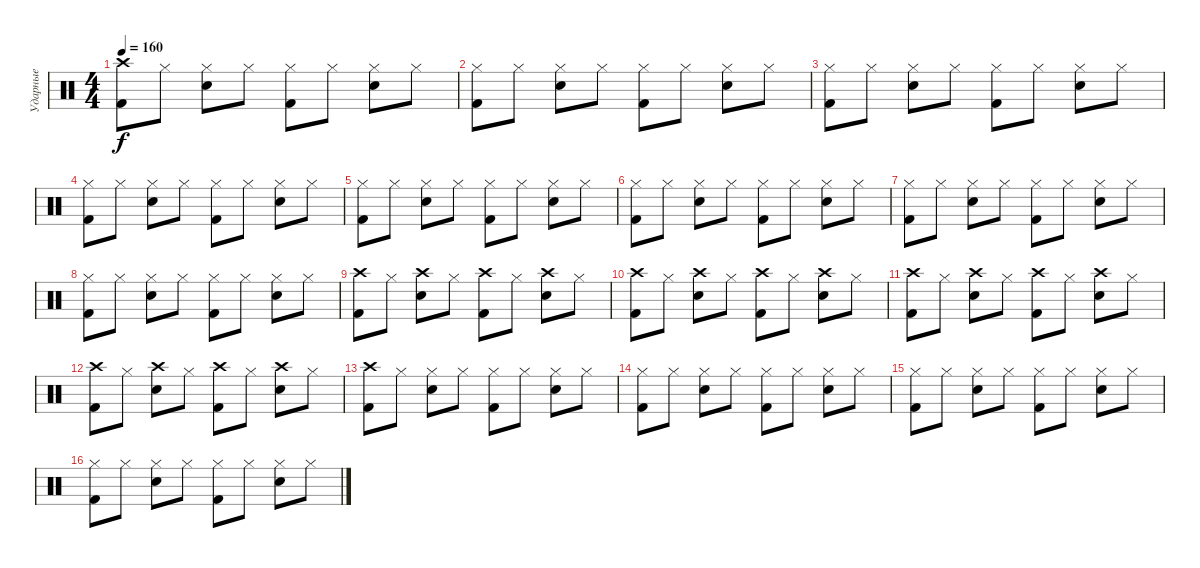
\track ("Ударные" "Ударные") {instrument percussion}
\staff {score}
\articulation defaults
\ts (4 4)
\tempo 160
\clef neutral
\ks c
("Crash high (hit)" "Kick (hit) 2").8{dy f} "Hi-Hat (closed)".8 ("Hi-Hat (closed)" "Snare (hit) 2").8 "Hi-Hat (closed)".8 ("Hi-Hat (closed)" "Kick (hit) 2").8 "Hi-Hat (closed)".8 ("Hi-Hat (closed)" "Snare (hit) 2").8 "Hi-Hat (closed)".8 |
("Hi-Hat (closed)" "Kick (hit) 2").8 "Hi-Hat (closed)".8 ("Hi-Hat (closed)" "Snare (hit) 2").8 "Hi-Hat (closed)".8 ("Hi-Hat (closed)" "Kick (hit) 2").8 "Hi-Hat (closed)".8 ("Hi-Hat (closed)" "Snare (hit) 2").8 "Hi-Hat (closed)".8 |
("Hi-Hat (closed)" "Kick (hit) 2").8 "Hi-Hat (closed)".8 ("Hi-Hat (closed)" "Snare (hit) 2").8 "Hi-Hat (closed)".8 ("Hi-Hat (closed)" "Kick (hit) 2").8 "Hi-Hat (closed)".8 ("Hi-Hat (closed)" "Snare (hit) 2").8 "Hi-Hat (closed)".8 |
("Hi-Hat (closed)" "Kick (hit) 2").8 "Hi-Hat (closed)".8 ("Hi-Hat (closed)" "Snare (hit) 2").8 "Hi-Hat (closed)".8 ("Hi-Hat (closed)" "Kick (hit) 2").8 "Hi-Hat (closed)".8 ("Hi-Hat (closed)" "Snare (hit) 2").8 "Hi-Hat (closed)".8 |
("Hi-Hat (closed)" "Kick (hit) 2").8 "Hi-Hat (closed)".8 ("Hi-Hat (closed)" "Snare (hit) 2").8 "Hi-Hat (closed)".8 ("Hi-Hat (closed)" "Kick (hit) 2").8 "Hi-Hat (closed)".8 ("Hi-Hat (closed)" "Snare (hit) 2").8 "Hi-Hat (closed)".8 |
("Hi-Hat (closed)" "Kick (hit) 2").8 "Hi-Hat (closed)".8 ("Hi-Hat (closed)" "Snare (hit) 2").8 "Hi-Hat (closed)".8 ("Hi-Hat (closed)" "Kick (hit) 2").8 "Hi-Hat (closed)".8 ("Hi-Hat (closed)" "Snare (hit) 2").8 "Hi-Hat (closed)".8 |
("Hi-Hat (closed)" "Kick (hit) 2").8 "Hi-Hat (closed)".8 ("Hi-Hat (closed)" "Snare (hit) 2").8 "Hi-Hat (closed)".8 ("Hi-Hat (closed)" "Kick (hit) 2").8 "Hi-Hat (closed)".8 ("Hi-Hat (closed)" "Snare (hit) 2").8 "Hi-Hat (closed)".8 |
("Hi-Hat (closed)" "Kick (hit) 2").8 "Hi-Hat (closed)".8 ("Hi-Hat (closed)" "Snare (hit) 2").8 "Hi-Hat (closed)".8 ("Hi-Hat (closed)" "Kick (hit) 2").8 "Hi-Hat (closed)".8 ("Hi-Hat (closed)" "Snare (hit) 2").8 "Hi-Hat (closed)".8 |
("Crash high (hit)" "Kick (hit) 2").8 "Hi-Hat (closed)".8 ("Crash high (hit)" "Snare (hit) 2").8 "Hi-Hat (closed)".8 ("Crash high (hit)" "Kick (hit) 2").8 "Hi-Hat (closed)".8 ("Crash high (hit)" "Snare (hit) 2").8 "Hi-Hat (closed)".8 |
("Crash high (hit)" "Kick (hit) 2").8 "Hi-Hat (closed)".8 ("Crash high (hit)" "Snare (hit) 2").8 "Hi-Hat (closed)".8 ("Crash high (hit)" "Kick (hit) 2").8 "Hi-Hat (closed)".8 ("Crash high (hit)" "Snare (hit) 2").8 "Hi-Hat (closed)".8 |
("Crash high (hit)" "Kick (hit) 2").8 "Hi-Hat (closed)".8 ("Crash high (hit)" "Snare (hit) 2").8 "Hi-Hat (closed)".8 ("Crash high (hit)" "Kick (hit) 2").8 "Hi-Hat (closed)".8 ("Crash high (hit)" "Snare (hit) 2").8 "Hi-Hat (closed)".8 |
("Crash high (hit)" "Kick (hit) 2").8 "Hi-Hat (closed)".8 ("Crash high (hit)" "Snare (hit) 2").8 "Hi-Hat (closed)".8 ("Crash high (hit)" "Kick (hit) 2").8 "Hi-Hat (closed)".8 ("Crash high (hit)" "Snare (hit) 2").8 "Hi-Hat (closed)".8 |
("Crash high (hit)" "Kick (hit) 2").8 "Hi-Hat (closed)".8 ("Hi-Hat (closed)" "Snare (hit) 2").8 "Hi-Hat (closed)".8 ("Hi-Hat (closed)" "Kick (hit) 2").8 "Hi-Hat (closed)".8 ("Hi-Hat (closed)" "Snare (hit) 2").8 "Hi-Hat (closed)".8 |
("Hi-Hat (closed)" "Kick (hit) 2").8 "Hi-Hat (closed)".8 ("Hi-Hat (closed)" "Snare (hit) 2").8 "Hi-Hat (closed)".8 ("Hi-Hat (closed)" "Kick (hit) 2").8 "Hi-Hat (closed)".8 ("Hi-Hat (closed)" "Snare (hit) 2").8 "Hi-Hat (closed)".8 |
("Hi-Hat (closed)" "Kick (hit) 2").8 "Hi-Hat (closed)".8 ("Hi-Hat (closed)" "Snare (hit) 2").8 "Hi-Hat (closed)".8 ("Hi-Hat (closed)" "Kick (hit) 2").8 "Hi-Hat (closed)".8 ("Hi-Hat (closed)" "Snare (hit) 2").8 "Hi-Hat (closed)".8 |
("Hi-Hat (closed)" "Kick (hit) 2").8 "Hi-Hat (closed)".8 ("Hi-Hat (closed)" "Snare (hit) 2").8 "Hi-Hat (closed)".8 ("Hi-Hat (closed)" "Kick (hit) 2").8 "Hi-Hat (closed)".8 ("Hi-Hat (closed)" "Snare (hit) 2").8 "Hi-Hat (closed)".8
